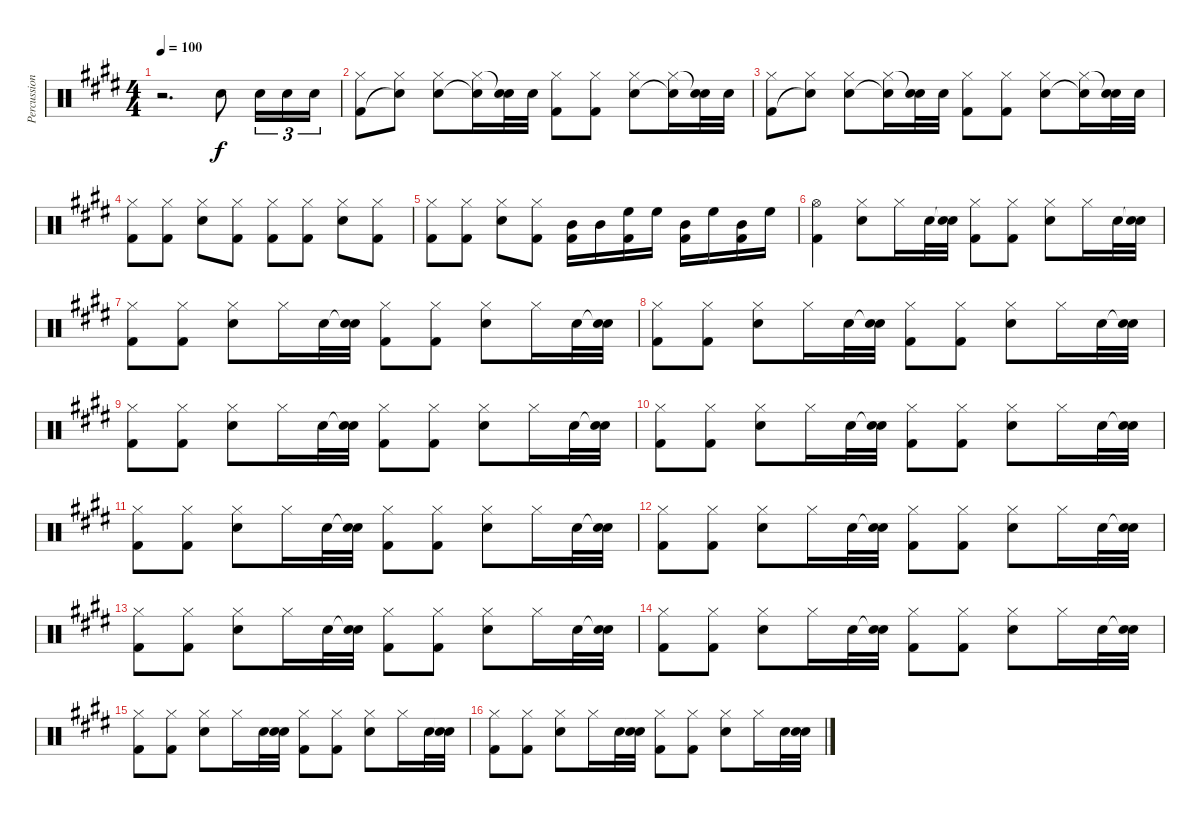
\track ("Percussion" "Percussion") {instrument percussion}
\staff {score}
\articulation defaults
\ts (4 4)
\tempo 100
\clef neutral
\ks e
r.2{d dy f} "Snare (hit) 2".8 "Snare (hit) 2".16{tu (3 2)} "Snare (hit) 2".16{tu (3 2)} "Snare (hit) 2".16{tu (3 2)} |
("Hi-Hat (closed)" "Kick (hit) 2").8 ("Hi-Hat (closed)" "Snare (hit)"{t}).8 ("Hi-Hat (closed)" "Snare (hit) 2").8 ("Hi-Hat (closed)" "Snare (hit)"{t}).16 ("Snare (hit)"{t} "Snare (hit) 2").32 "Snare (hit) 2".32 ("Hi-Hat (closed)" "Kick (hit) 2").8 ("Hi-Hat (closed)" "Kick (hit) 2").8 ("Hi-Hat (closed)" "Snare (hit) 2").8 ("Hi-Hat (closed)" "Snare (hit)"{t}).16 ("Snare (hit)"{t} "Snare (hit) 2").32 "Snare (hit) 2".32 |
("Hi-Hat (closed)" "Kick (hit) 2").8 ("Hi-Hat (closed)" "Snare (hit)"{t}).8 ("Hi-Hat (closed)" "Snare (hit) 2").8 ("Hi-Hat (closed)" "Snare (hit)"{t}).16 ("Snare (hit)"{t} "Snare (hit) 2").32 "Snare (hit) 2".32 ("Hi-Hat (closed)" "Kick (hit) 2").8 ("Hi-Hat (closed)" "Kick (hit) 2").8 ("Hi-Hat (closed)" "Snare (hit) 2").8 ("Hi-Hat (closed)" "Snare (hit)"{t}).16 ("Snare (hit)"{t} "Snare (hit) 2").32 "Snare (hit) 2".32 |
("Hi-Hat (closed)" "Kick (hit) 2").8 ("Hi-Hat (closed)" "Kick (hit) 2").8 ("Hi-Hat (closed)" "Snare (hit) 2").8 ("Hi-Hat (closed)" "Kick (hit) 2").8 ("Hi-Hat (closed)" "Kick (hit) 2").8 ("Hi-Hat (closed)" "Kick (hit) 2").8 ("Hi-Hat (closed)" "Snare (hit) 2").8 ("Hi-Hat (closed)" "Kick (hit) 2").8 |
("Hi-Hat (closed)" "Kick (hit) 2").8 ("Hi-Hat (closed)" "Kick (hit) 2").8 ("Hi-Hat (closed)" "Snare (hit) 2").8 ("Hi-Hat (closed)" "Kick (hit) 2").8 ("Mid Tom (hit)" "Kick (hit) 2").16 "Mid Tom (hit)".16 ("High Floor Tom (hit)" "Kick (hit) 2").16 "High Floor Tom (hit)".16 ("Mid Tom (hit)" "Kick (hit) 2").16 "High Floor Tom (hit)".16 ("Mid Tom (hit)" "Kick (hit) 2").16 "High Floor Tom (hit)".16 |
("Hi-Hat (open)" "Kick (hit) 2").4 ("Hi-Hat (closed)" "Snare (hit) 2").8 "Hi-Hat (closed)".16 "Snare (hit) 2".32 ("Snare (hit)"{t} "Snare (hit) 2").32 ("Hi-Hat (closed)" "Kick (hit) 2").8 ("Hi-Hat (closed)" "Kick (hit) 2").8 ("Hi-Hat (closed)" "Snare (hit) 2").8 "Hi-Hat (closed)".16 "Snare (hit) 2".32 ("Snare (hit)"{t} "Snare (hit) 2").32 |
("Hi-Hat (closed)" "Kick (hit) 2").8 ("Hi-Hat (closed)" "Kick (hit) 2").8 ("Hi-Hat (closed)" "Snare (hit) 2").8 "Hi-Hat (closed)".16 "Snare (hit) 2".32 ("Snare (hit)"{t} "Snare (hit) 2").32 ("Hi-Hat (closed)" "Kick (hit) 2").8 ("Hi-Hat (closed)" "Kick (hit) 2").8 ("Hi-Hat (closed)" "Snare (hit) 2").8 "Hi-Hat (closed)".16 "Snare (hit) 2".32 ("Snare (hit)"{t} "Snare (hit) 2").32 |
("Hi-Hat (closed)" "Kick (hit) 2").8 ("Hi-Hat (closed)" "Kick (hit) 2").8 ("Hi-Hat (closed)" "Snare (hit) 2").8 "Hi-Hat (closed)".16 "Snare (hit) 2".32 ("Snare (hit)"{t} "Snare (hit) 2").32 ("Hi-Hat (closed)" "Kick (hit) 2").8 ("Hi-Hat (closed)" "Kick (hit) 2").8 ("Hi-Hat (closed)" "Snare (hit) 2").8 "Hi-Hat (closed)".16 "Snare (hit) 2".32 ("Snare (hit)"{t} "Snare (hit) 2").32 |
("Hi-Hat (closed)" "Kick (hit) 2").8 ("Hi-Hat (closed)" "Kick (hit) 2").8 ("Hi-Hat (closed)" "Snare (hit) 2").8 "Hi-Hat (closed)".16 "Snare (hit) 2".32 ("Snare (hit)"{t} "Snare (hit) 2").32 ("Hi-Hat (closed)" "Kick (hit) 2").8 ("Hi-Hat (closed)" "Kick (hit) 2").8 ("Hi-Hat (closed)" "Snare (hit) 2").8 "Hi-Hat (closed)".16 "Snare (hit) 2".32 ("Snare (hit)"{t} "Snare (hit) 2").32 |
("Hi-Hat (closed)" "Kick (hit) 2").8 ("Hi-Hat (closed)" "Kick (hit) 2").8 ("Hi-Hat (closed)" "Snare (hit) 2").8 "Hi-Hat (closed)".16 "Snare (hit) 2".32 ("Snare (hit)"{t} "Snare (hit) 2").32 ("Hi-Hat (closed)" "Kick (hit) 2").8 ("Hi-Hat (closed)" "Kick (hit) 2").8 ("Hi-Hat (closed)" "Snare (hit) 2").8 "Hi-Hat (closed)".16 "Snare (hit) 2".32 ("Snare (hit)"{t} "Snare (hit) 2").32 |
("Hi-Hat (closed)" "Kick (hit) 2").8 ("Hi-Hat (closed)" "Kick (hit) 2").8 ("Hi-Hat (closed)" "Snare (hit) 2").8 "Hi-Hat (closed)".16 "Snare (hit) 2".32 ("Snare (hit)"{t} "Snare (hit) 2").32 ("Hi-Hat (closed)" "Kick (hit) 2").8 ("Hi-Hat (closed)" "Kick (hit) 2").8 ("Hi-Hat (closed)" "Snare (hit) 2").8 "Hi-Hat (closed)".16 "Snare (hit) 2".32 ("Snare (hit)"{t} "Snare (hit) 2").32 |
("Hi-Hat (closed)" "Kick (hit) 2").8 ("Hi-Hat (closed)" "Kick (hit) 2").8 ("Hi-Hat (closed)" "Snare (hit) 2").8 "Hi-Hat (closed)".16 "Snare (hit) 2".32 ("Snare (hit)"{t} "Snare (hit) 2").32 ("Hi-Hat (closed)" "Kick (hit) 2").8 ("Hi-Hat (closed)" "Kick (hit) 2").8 ("Hi-Hat (closed)" "Snare (hit) 2").8 "Hi-Hat (closed)".16 "Snare (hit) 2".32 ("Snare (hit)"{t} "Snare (hit) 2").32 |
("Hi-Hat (closed)" "Kick (hit) 2").8 ("Hi-Hat (closed)" "Kick (hit) 2").8 ("Hi-Hat (closed)" "Snare (hit) 2").8 "Hi-Hat (closed)".16 "Snare (hit) 2".32 ("Snare (hit)"{t} "Snare (hit) 2").32 ("Hi-Hat (closed)" "Kick (hit) 2").8 ("Hi-Hat (closed)" "Kick (hit) 2").8 ("Hi-Hat (closed)" "Snare (hit) 2").8 "Hi-Hat (closed)".16 "Snare (hit) 2".32 ("Snare (hit)"{t} "Snare (hit) 2").32 |
("Hi-Hat (closed)" "Kick (hit) 2").8 ("Hi-Hat (closed)" "Kick (hit) 2").8 ("Hi-Hat (closed)" "Snare (hit) 2").8 "Hi-Hat (closed)".16 "Snare (hit) 2".32 ("Snare (hit)"{t} "Snare (hit) 2").32 ("Hi-Hat (closed)" "Kick (hit) 2").8 ("Hi-Hat (closed)" "Kick (hit) 2").8 ("Hi-Hat (closed)" "Snare (hit) 2").8 "Hi-Hat (closed)".16 "Snare (hit) 2".32 ("Snare (hit)"{t} "Snare (hit) 2").32 |
("Hi-Hat (closed)" "Kick (hit) 2").8 ("Hi-Hat (closed)" "Kick (hit) 2").8 ("Hi-Hat (closed)" "Snare (hit) 2").8 "Hi-Hat (closed)".16 "Snare (hit) 2".32 ("Snare (hit)"{t} "Snare (hit) 2").32 ("Hi-Hat (closed)" "Kick (hit) 2").8 ("Hi-Hat (closed)" "Kick (hit) 2").8 ("Hi-Hat (closed)" "Snare (hit) 2").8 "Hi-Hat (closed)".16 "Snare (hit) 2".32 ("Snare (hit)"{t} "Snare (hit) 2").32 |
("Hi-Hat (closed)" "Kick (hit) 2").8 ("Hi-Hat (closed)" "Kick (hit) 2").8 ("Hi-Hat (closed)" "Snare (hit) 2").8 "Hi-Hat (closed)".16 "Snare (hit) 2".32 ("Snare (hit)"{t} "Snare (hit) 2").32 ("Hi-Hat (closed)" "Kick (hit) 2").8 ("Hi-Hat (closed)" "Kick (hit) 2").8 ("Hi-Hat (closed)" "Snare (hit) 2").8 "Hi-Hat (closed)".16 "Snare (hit) 2".32 ("Snare (hit)"{t} "Snare (hit) 2").32
